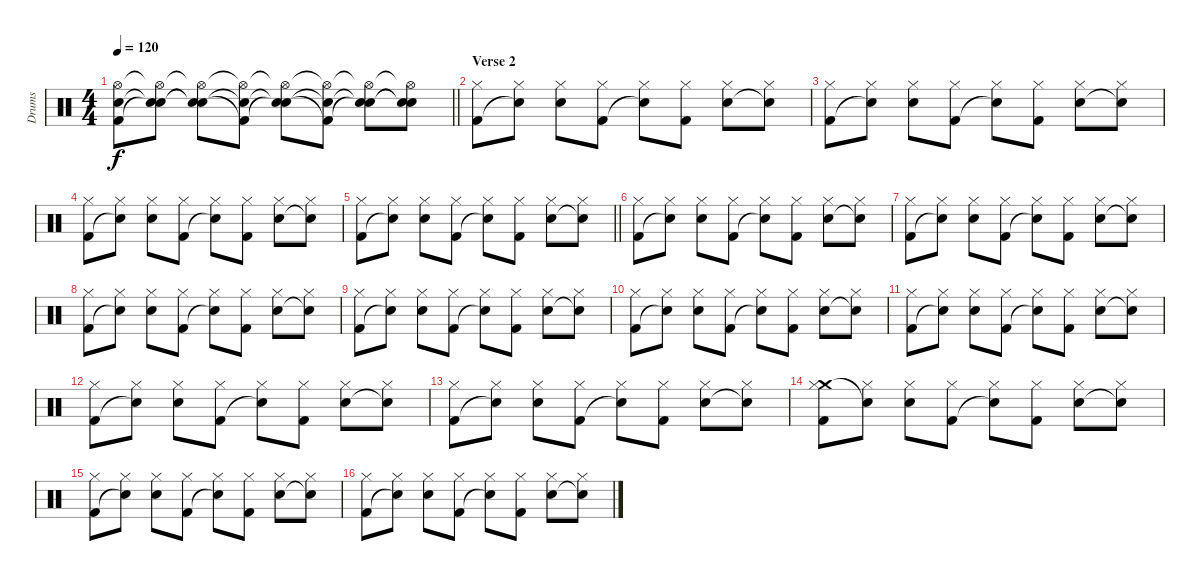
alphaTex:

\track ("Drums" "Drums") {instrument percussion}
\staff {score}
\articulation defaults
\ts (4 4)
\tempo 120
\clef neutral
\barLineRight lightlight
\ks c
("Hi-Hat (open)" "Electric Snare (hit)" "Kick (hit) 2").8{dy f} ("Hi-Hat (open)"{t} "Snare (hit)"{t} "Snare (hit)"{t}).8 ("Hi-Hat (open)"{t} "Electric Snare (hit)"{t} "Snare (hit)"{t}).8 ("Hi-Hat (open)"{t} "Electric Snare (hit)"{t} "Kick (hit) 2"{t}).8 ("Hi-Hat (open)"{t} "Snare (hit)"{t} "Snare (hit)"{t}).8 ("Hi-Hat (open)"{t} "Electric Snare (hit)"{t} "Kick (hit) 2"{t}).8 ("Hi-Hat (open)"{t} "Electric Snare (hit)"{t} "Snare (hit)"{t}).8 ("Hi-Hat (open)"{t} "Electric Snare (hit)"{t} "Snare (hit)"{t}).8 |
\section ("" "Verse 2")
("Hi-Hat (closed)" "Kick (hit) 2").8 ("Hi-Hat (closed)" "Snare (hit)"{t}).8 ("Hi-Hat (closed)" "Electric Snare (hit)").8 ("Hi-Hat (closed)" "Kick (hit) 2").8 ("Hi-Hat (closed)" "Snare (hit)"{t}).8 ("Hi-Hat (closed)" "Kick (hit) 2").8 ("Hi-Hat (closed)" "Electric Snare (hit)").8 ("Hi-Hat (closed)" "Snare (hit)"{t}).8 |
("Hi-Hat (closed)" "Kick (hit) 2").8 ("Hi-Hat (closed)" "Snare (hit)"{t}).8 ("Hi-Hat (closed)" "Electric Snare (hit)").8 ("Hi-Hat (closed)" "Kick (hit) 2").8 ("Hi-Hat (closed)" "Snare (hit)"{t}).8 ("Hi-Hat (closed)" "Kick (hit) 2").8 ("Hi-Hat (closed)" "Electric Snare (hit)").8 ("Hi-Hat (closed)" "Snare (hit)"{t}).8 |
("Hi-Hat (closed)" "Kick (hit) 2").8 ("Hi-Hat (closed)" "Snare (hit)"{t}).8 ("Hi-Hat (closed)" "Electric Snare (hit)").8 ("Hi-Hat (closed)" "Kick (hit) 2").8 ("Hi-Hat (closed)" "Snare (hit)"{t}).8 ("Hi-Hat (closed)" "Kick (hit) 2").8 ("Hi-Hat (closed)" "Electric Snare (hit)").8 ("Hi-Hat (closed)" "Snare (hit)"{t}).8 |
\barLineRight lightlight
("Hi-Hat (closed)" "Kick (hit) 2").8 ("Hi-Hat (closed)" "Snare (hit)"{t}).8 ("Hi-Hat (closed)" "Electric Snare (hit)").8 ("Hi-Hat (closed)" "Kick (hit) 2").8 ("Hi-Hat (closed)" "Snare (hit)"{t}).8 ("Hi-Hat (closed)" "Kick (hit) 2").8 ("Hi-Hat (closed)" "Electric Snare (hit)").8 ("Hi-Hat (closed)" "Snare (hit)"{t}).8 |
("Hi-Hat (closed)" "Kick (hit) 2").8 ("Hi-Hat (closed)" "Snare (hit)"{t}).8 ("Hi-Hat (closed)" "Electric Snare (hit)").8 ("Hi-Hat (closed)" "Kick (hit) 2").8 ("Hi-Hat (closed)" "Snare (hit)"{t}).8 ("Hi-Hat (closed)" "Kick (hit) 2").8 ("Hi-Hat (closed)" "Electric Snare (hit)").8 ("Hi-Hat (closed)" "Snare (hit)"{t}).8 |
("Hi-Hat (closed)" "Kick (hit) 2").8 ("Hi-Hat (closed)" "Snare (hit)"{t}).8 ("Hi-Hat (closed)" "Electric Snare (hit)").8 ("Hi-Hat (closed)" "Kick (hit) 2").8 ("Hi-Hat (closed)" "Snare (hit)"{t}).8 ("Hi-Hat (closed)" "Kick (hit) 2").8 ("Hi-Hat (closed)" "Electric Snare (hit)").8 ("Hi-Hat (closed)" "Snare (hit)"{t}).8 |
("Hi-Hat (closed)" "Kick (hit) 2").8 ("Hi-Hat (closed)" "Snare (hit)"{t}).8 ("Hi-Hat (closed)" "Electric Snare (hit)").8 ("Hi-Hat (closed)" "Kick (hit) 2").8 ("Hi-Hat (closed)" "Snare (hit)"{t}).8 ("Hi-Hat (closed)" "Kick (hit) 2").8 ("Hi-Hat (closed)" "Electric Snare (hit)").8 ("Hi-Hat (closed)" "Snare (hit)"{t}).8 |
("Hi-Hat (closed)" "Kick (hit) 2").8 ("Hi-Hat (closed)" "Snare (hit)"{t}).8 ("Hi-Hat (closed)" "Electric Snare (hit)").8 ("Hi-Hat (closed)" "Kick (hit) 2").8 ("Hi-Hat (closed)" "Snare (hit)"{t}).8 ("Hi-Hat (closed)" "Kick (hit) 2").8 ("Hi-Hat (closed)" "Electric Snare (hit)").8 ("Hi-Hat (closed)" "Snare (hit)"{t}).8 |
("Hi-Hat (closed)" "Kick (hit) 2").8 ("Hi-Hat (closed)" "Snare (hit)"{t}).8 ("Hi-Hat (closed)" "Electric Snare (hit)").8 ("Hi-Hat (closed)" "Kick (hit) 2").8 ("Hi-Hat (closed)" "Snare (hit)"{t}).8 ("Hi-Hat (closed)" "Kick (hit) 2").8 ("Hi-Hat (closed)" "Electric Snare (hit)").8 ("Hi-Hat (closed)" "Snare (hit)"{t}).8 |
("Hi-Hat (closed)" "Kick (hit) 2").8 ("Hi-Hat (closed)" "Snare (hit)"{t}).8 ("Hi-Hat (closed)" "Electric Snare (hit)").8 ("Hi-Hat (closed)" "Kick (hit) 2").8 ("Hi-Hat (closed)" "Snare (hit)"{t}).8 ("Hi-Hat (closed)" "Kick (hit) 2").8 ("Hi-Hat (closed)" "Electric Snare (hit)").8 ("Hi-Hat (closed)" "Snare (hit)"{t}).8 |
("Hi-Hat (closed)" "Kick (hit) 2").8 ("Hi-Hat (closed)" "Snare (hit)"{t}).8 ("Hi-Hat (closed)" "Electric Snare (hit)").8 ("Hi-Hat (closed)" "Kick (hit) 2").8 ("Hi-Hat (closed)" "Snare (hit)"{t}).8 ("Hi-Hat (closed)" "Kick (hit) 2").8 ("Hi-Hat (closed)" "Electric Snare (hit)").8 ("Hi-Hat (closed)" "Snare (hit)"{t}).8 |
("Hi-Hat (closed)" "Kick (hit) 2").8 ("Hi-Hat (closed)" "Snare (hit)"{t}).8 ("Hi-Hat (closed)" "Electric Snare (hit)").8 ("Hi-Hat (closed)" "Kick (hit) 2").8 ("Hi-Hat (closed)" "Snare (hit)"{t}).8 ("Hi-Hat (closed)" "Kick (hit) 2").8 ("Hi-Hat (closed)" "Electric Snare (hit)").8 ("Hi-Hat (closed)" "Snare (hit)"{t}).8 |
("Crash medium (hit)" "Hi-Hat (closed)" "Kick (hit) 2").8 ("Hi-Hat (closed)" "Snare (hit)"{t}).8 ("Hi-Hat (closed)" "Electric Snare (hit)").8 ("Hi-Hat (closed)" "Kick (hit) 2").8 ("Hi-Hat (closed)" "Snare (hit)"{t}).8 ("Hi-Hat (closed)" "Kick (hit) 2").8 ("Hi-Hat (closed)" "Electric Snare (hit)").8 ("Hi-Hat (closed)" "Snare (hit)"{t}).8 |
("Hi-Hat (closed)" "Kick (hit) 2").8 ("Hi-Hat (closed)" "Snare (hit)"{t}).8 ("Hi-Hat (closed)" "Electric Snare (hit)").8 ("Hi-Hat (closed)" "Kick (hit) 2").8 ("Hi-Hat (closed)" "Snare (hit)"{t}).8 ("Hi-Hat (closed)" "Kick (hit) 2").8 ("Hi-Hat (closed)" "Electric Snare (hit)").8 ("Hi-Hat (closed)" "Snare (hit)"{t}).8 |
("Hi-Hat (closed)" "Kick (hit) 2").8 ("Hi-Hat (closed)" "Snare (hit)"{t}).8 ("Hi-Hat (closed)" "Electric Snare (hit)").8 ("Hi-Hat (closed)" "Kick (hit) 2").8 ("Hi-Hat (closed)" "Snare (hit)"{t}).8 ("Hi-Hat (closed)" "Kick (hit) 2").8 ("Hi-Hat (closed)" "Electric Snare (hit)").8 ("Hi-Hat (closed)" "Snare (hit)"{t}).8
